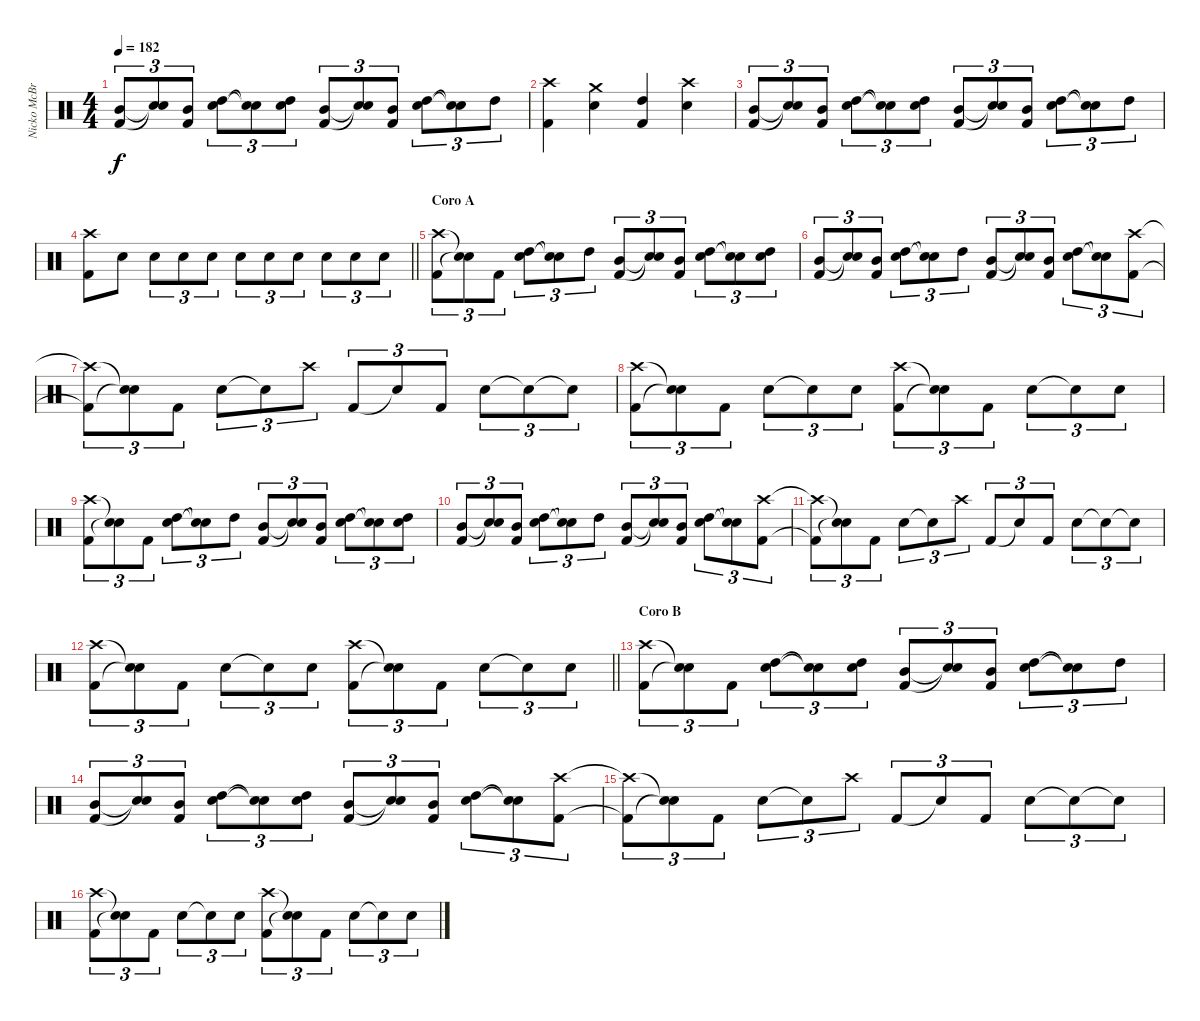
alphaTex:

\track ("Nicko McBrain" "Nicko McBr") {instrument percussion}
\staff {score}
\articulation defaults
\ts (4 4)
\tempo 182
\clef neutral
\ks c
("Mid Tom (hit)" "Kick (hit) 2").8{tu (3 2) dy f} ("Snare (hit)"{t} "Snare (hit)"{t}).8{tu (3 2)} ("Mid Tom (hit)" "Kick (hit) 2").8{tu (3 2)} ("High Tom (hit)" "Snare (hit) 2").8{tu (3 2)} ("Snare (hit)"{t} "Snare (hit)"{t}).8{tu (3 2)} ("High Tom (hit)" "Snare (hit) 2").8{tu (3 2)} ("Mid Tom (hit)" "Kick (hit) 2").8{tu (3 2)} ("Snare (hit)"{t} "Snare (hit)"{t}).8{tu (3 2)} ("Mid Tom (hit)" "Kick (hit) 2").8{tu (3 2)} ("High Tom (hit)" "Snare (hit) 2").8{tu (3 2)} ("Snare (hit)"{t} "Snare (hit)"{t}).8{tu (3 2)} "High Tom (hit)".8{tu (3 2)} |
("Kick (hit) 2" "Crash high (hit)").4 ("Snare (hit) 2" "Crash medium (hit)").4 ("High Tom (hit)" "Kick (hit) 2").4 ("Snare (hit) 2" "Crash high (hit)").4 |
("Mid Tom (hit)" "Kick (hit) 2").8{tu (3 2)} ("Snare (hit)"{t} "Snare (hit)"{t}).8{tu (3 2)} ("Mid Tom (hit)" "Kick (hit) 2").8{tu (3 2)} ("High Tom (hit)" "Snare (hit) 2").8{tu (3 2)} ("Snare (hit)"{t} "Snare (hit)"{t}).8{tu (3 2)} ("High Tom (hit)" "Snare (hit) 2").8{tu (3 2)} ("Mid Tom (hit)" "Kick (hit) 2").8{tu (3 2)} ("Snare (hit)"{t} "Snare (hit)"{t}).8{tu (3 2)} ("Mid Tom (hit)" "Kick (hit) 2").8{tu (3 2)} ("High Tom (hit)" "Snare (hit) 2").8{tu (3 2)} ("Snare (hit)"{t} "Snare (hit)"{t}).8{tu (3 2)} "High Tom (hit)".8{tu (3 2)} |
\barLineRight lightlight
("Kick (hit) 2" "Crash high (hit)").8 "Snare (hit) 2".8 "Snare (hit) 2".8{tu (3 2)} "Snare (hit) 2".8{tu (3 2)} "Snare (hit) 2".8{tu (3 2)} "Snare (hit) 2".8{tu (3 2)} "Snare (hit) 2".8{tu (3 2)} "Snare (hit) 2".8{tu (3 2)} "Snare (hit) 2".8{tu (3 2)} "Snare (hit) 2".8{tu (3 2)} "Snare (hit) 2".8{tu (3 2)} |
\section ("" "Coro A")
("Kick (hit) 2" "Crash high (hit)").8{tu (3 2)} ("Snare (hit)"{t} "Snare (hit)"{t}).8{tu (3 2)} "Kick (hit) 2".8{tu (3 2)} ("High Tom (hit)" "Snare (hit) 2").8{tu (3 2)} ("Snare (hit)"{t} "Snare (hit)"{t}).8{tu (3 2)} "High Tom (hit)".8{tu (3 2)} ("Mid Tom (hit)" "Kick (hit) 2").8{tu (3 2)} ("Snare (hit)"{t} "Snare (hit)"{t}).8{tu (3 2)} ("Mid Tom (hit)" "Kick (hit) 2").8{tu (3 2)} ("High Tom (hit)" "Snare (hit) 2").8{tu (3 2)} ("Snare (hit)"{t} "Snare (hit)"{t}).8{tu (3 2)} ("High Tom (hit)" "Snare (hit) 2").8{tu (3 2)} |
("Mid Tom (hit)" "Kick (hit) 2").8{tu (3 2)} ("Snare (hit)"{t} "Snare (hit)"{t}).8{tu (3 2)} ("Mid Tom (hit)" "Kick (hit) 2").8{tu (3 2)} ("High Tom (hit)" "Snare (hit) 2").8{tu (3 2)} ("Snare (hit)"{t} "Snare (hit)"{t}).8{tu (3 2)} "High Tom (hit)".8{tu (3 2)} ("Mid Tom (hit)" "Kick (hit) 2").8{tu (3 2)} ("Snare (hit)"{t} "Snare (hit)"{t}).8{tu (3 2)} ("Mid Tom (hit)" "Kick (hit) 2").8{tu (3 2)} ("High Tom (hit)" "Snare (hit) 2").8{tu (3 2)} ("Snare (hit)"{t} "Snare (hit)"{t}).8{tu (3 2)} ("Kick (hit) 2" "Crash high (hit)").8{tu (3 2)} |
("Kick (hit) 2"{t} "Crash high (hit)"{t}).8{tu (3 2)} ("Snare (hit)"{t} "Snare (hit)"{t}).8{tu (3 2)} "Kick (hit) 2".8{tu (3 2)} "Snare (hit) 2".8{tu (3 2)} "Snare (hit)"{t}.8{tu (3 2)} "Crash high (hit)".8{tu (3 2)} "Kick (hit) 2".8{tu (3 2)} "Snare (hit)"{t}.8{tu (3 2)} "Kick (hit) 2".8{tu (3 2)} "Snare (hit) 2".8{tu (3 2)} "Snare (hit)"{t}.8{tu (3 2)} "Snare (hit)"{t}.8{tu (3 2)} |
("Kick (hit) 2" "Crash high (hit)").8{tu (3 2)} ("Snare (hit)"{t} "Snare (hit)"{t}).8{tu (3 2)} "Kick (hit) 2".8{tu (3 2)} "Snare (hit) 2".8{tu (3 2)} "Snare (hit)"{t}.8{tu (3 2)} "Snare (hit) 2".8{tu (3 2)} ("Kick (hit) 2" "Crash high (hit)").8{tu (3 2)} ("Snare (hit)"{t} "Snare (hit)"{t}).8{tu (3 2)} "Kick (hit) 2".8{tu (3 2)} "Snare (hit) 2".8{tu (3 2)} "Snare (hit)"{t}.8{tu (3 2)} "Snare (hit) 2".8{tu (3 2)} |
("Kick (hit) 2" "Crash high (hit)").8{tu (3 2)} ("Snare (hit)"{t} "Snare (hit)"{t}).8{tu (3 2)} "Kick (hit) 2".8{tu (3 2)} ("High Tom (hit)" "Snare (hit) 2").8{tu (3 2)} ("Snare (hit)"{t} "Snare (hit)"{t}).8{tu (3 2)} "High Tom (hit)".8{tu (3 2)} ("Mid Tom (hit)" "Kick (hit) 2").8{tu (3 2)} ("Snare (hit)"{t} "Snare (hit)"{t}).8{tu (3 2)} ("Mid Tom (hit)" "Kick (hit) 2").8{tu (3 2)} ("High Tom (hit)" "Snare (hit) 2").8{tu (3 2)} ("Snare (hit)"{t} "Snare (hit)"{t}).8{tu (3 2)} ("High Tom (hit)" "Snare (hit) 2").8{tu (3 2)} |
("Mid Tom (hit)" "Kick (hit) 2").8{tu (3 2)} ("Snare (hit)"{t} "Snare (hit)"{t}).8{tu (3 2)} ("Mid Tom (hit)" "Kick (hit) 2").8{tu (3 2)} ("High Tom (hit)" "Snare (hit) 2").8{tu (3 2)} ("Snare (hit)"{t} "Snare (hit)"{t}).8{tu (3 2)} "High Tom (hit)".8{tu (3 2)} ("Mid Tom (hit)" "Kick (hit) 2").8{tu (3 2)} ("Snare (hit)"{t} "Snare (hit)"{t}).8{tu (3 2)} ("Mid Tom (hit)" "Kick (hit) 2").8{tu (3 2)} ("High Tom (hit)" "Snare (hit) 2").8{tu (3 2)} ("Snare (hit)"{t} "Snare (hit)"{t}).8{tu (3 2)} ("Kick (hit) 2" "Crash high (hit)").8{tu (3 2)} |
("Kick (hit) 2"{t} "Crash high (hit)"{t}).8{tu (3 2)} ("Snare (hit)"{t} "Snare (hit)"{t}).8{tu (3 2)} "Kick (hit) 2".8{tu (3 2)} "Snare (hit) 2".8{tu (3 2)} "Snare (hit)"{t}.8{tu (3 2)} "Crash high (hit)".8{tu (3 2)} "Kick (hit) 2".8{tu (3 2)} "Snare (hit)"{t}.8{tu (3 2)} "Kick (hit) 2".8{tu (3 2)} "Snare (hit) 2".8{tu (3 2)} "Snare (hit)"{t}.8{tu (3 2)} "Snare (hit)"{t}.8{tu (3 2)} |
\barLineRight lightlight
("Kick (hit) 2" "Crash high (hit)").8{tu (3 2)} ("Snare (hit)"{t} "Snare (hit)"{t}).8{tu (3 2)} "Kick (hit) 2".8{tu (3 2)} "Snare (hit) 2".8{tu (3 2)} "Snare (hit)"{t}.8{tu (3 2)} "Snare (hit) 2".8{tu (3 2)} ("Kick (hit) 2" "Crash high (hit)").8{tu (3 2)} ("Snare (hit)"{t} "Snare (hit)"{t}).8{tu (3 2)} "Kick (hit) 2".8{tu (3 2)} "Snare (hit) 2".8{tu (3 2)} "Snare (hit)"{t}.8{tu (3 2)} "Snare (hit) 2".8{tu (3 2)} |
\section ("" "Coro B")
("Kick (hit) 2" "Crash high (hit)").8{tu (3 2)} ("Snare (hit)"{t} "Snare (hit)"{t}).8{tu (3 2)} "Kick (hit) 2".8{tu (3 2)} ("High Tom (hit)" "Snare (hit) 2").8{tu (3 2)} ("Snare (hit)"{t} "Snare (hit)"{t}).8{tu (3 2)} ("High Tom (hit)" "Snare (hit) 2").8{tu (3 2)} ("Mid Tom (hit)" "Kick (hit) 2").8{tu (3 2)} ("Snare (hit)"{t} "Snare (hit)"{t}).8{tu (3 2)} ("Mid Tom (hit)" "Kick (hit) 2").8{tu (3 2)} ("High Tom (hit)" "Snare (hit) 2").8{tu (3 2)} ("Snare (hit)"{t} "Snare (hit)"{t}).8{tu (3 2)} "High Tom (hit)".8{tu (3 2)} |
("Mid Tom (hit)" "Kick (hit) 2").8{tu (3 2)} ("Snare (hit)"{t} "Snare (hit)"{t}).8{tu (3 2)} ("Mid Tom (hit)" "Kick (hit) 2").8{tu (3 2)} ("High Tom (hit)" "Snare (hit) 2").8{tu (3 2)} ("Snare (hit)"{t} "Snare (hit)"{t}).8{tu (3 2)} ("High Tom (hit)" "Snare (hit) 2").8{tu (3 2)} ("Mid Tom (hit)" "Kick (hit) 2").8{tu (3 2)} ("Snare (hit)"{t} "Snare (hit)"{t}).8{tu (3 2)} ("Mid Tom (hit)" "Kick (hit) 2").8{tu (3 2)} ("High Tom (hit)" "Snare (hit) 2").8{tu (3 2)} ("Snare (hit)"{t} "Snare (hit)"{t}).8{tu (3 2)} ("Kick (hit) 2" "Crash high (hit)").8{tu (3 2)} |
("Kick (hit) 2"{t} "Crash high (hit)"{t}).8{tu (3 2)} ("Snare (hit)"{t} "Snare (hit)"{t}).8{tu (3 2)} "Kick (hit) 2".8{tu (3 2)} "Snare (hit) 2".8{tu (3 2)} "Snare (hit)"{t}.8{tu (3 2)} "Crash high (hit)".8{tu (3 2)} "Kick (hit) 2".8{tu (3 2)} "Snare (hit)"{t}.8{tu (3 2)} "Kick (hit) 2".8{tu (3 2)} "Snare (hit) 2".8{tu (3 2)} "Snare (hit)"{t}.8{tu (3 2)} "Snare (hit)"{t}.8{tu (3 2)} |
("Kick (hit) 2" "Crash high (hit)").8{tu (3 2)} ("Snare (hit)"{t} "Snare (hit)"{t}).8{tu (3 2)} "Kick (hit) 2".8{tu (3 2)} "Snare (hit) 2".8{tu (3 2)} "Snare (hit)"{t}.8{tu (3 2)} "Snare (hit) 2".8{tu (3 2)} ("Kick (hit) 2" "Crash high (hit)").8{tu (3 2)} ("Snare (hit)"{t} "Snare (hit)"{t}).8{tu (3 2)} "Kick (hit) 2".8{tu (3 2)} "Snare (hit) 2".8{tu (3 2)} "Snare (hit)"{t}.8{tu (3 2)} "Snare (hit) 2".8{tu (3 2)}
